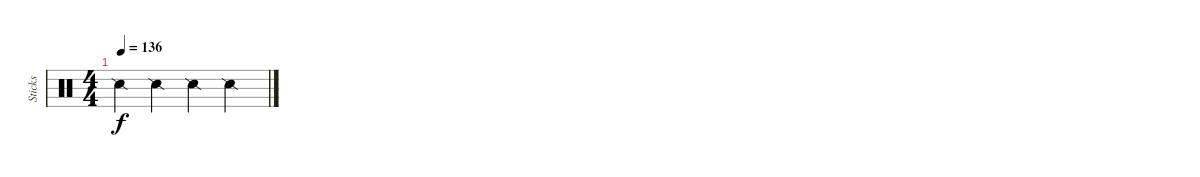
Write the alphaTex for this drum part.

\track ("Sticks" "Sticks") {instrument percussion}
\staff {score}
\articulation defaults
\ts (4 4)
\tempo 136
\clef neutral
\ks c "Snare (side stick) 2".4{dy f} "Snare (side stick) 2".4 "Snare (side stick) 2".4 "Snare (side stick) 2".4
